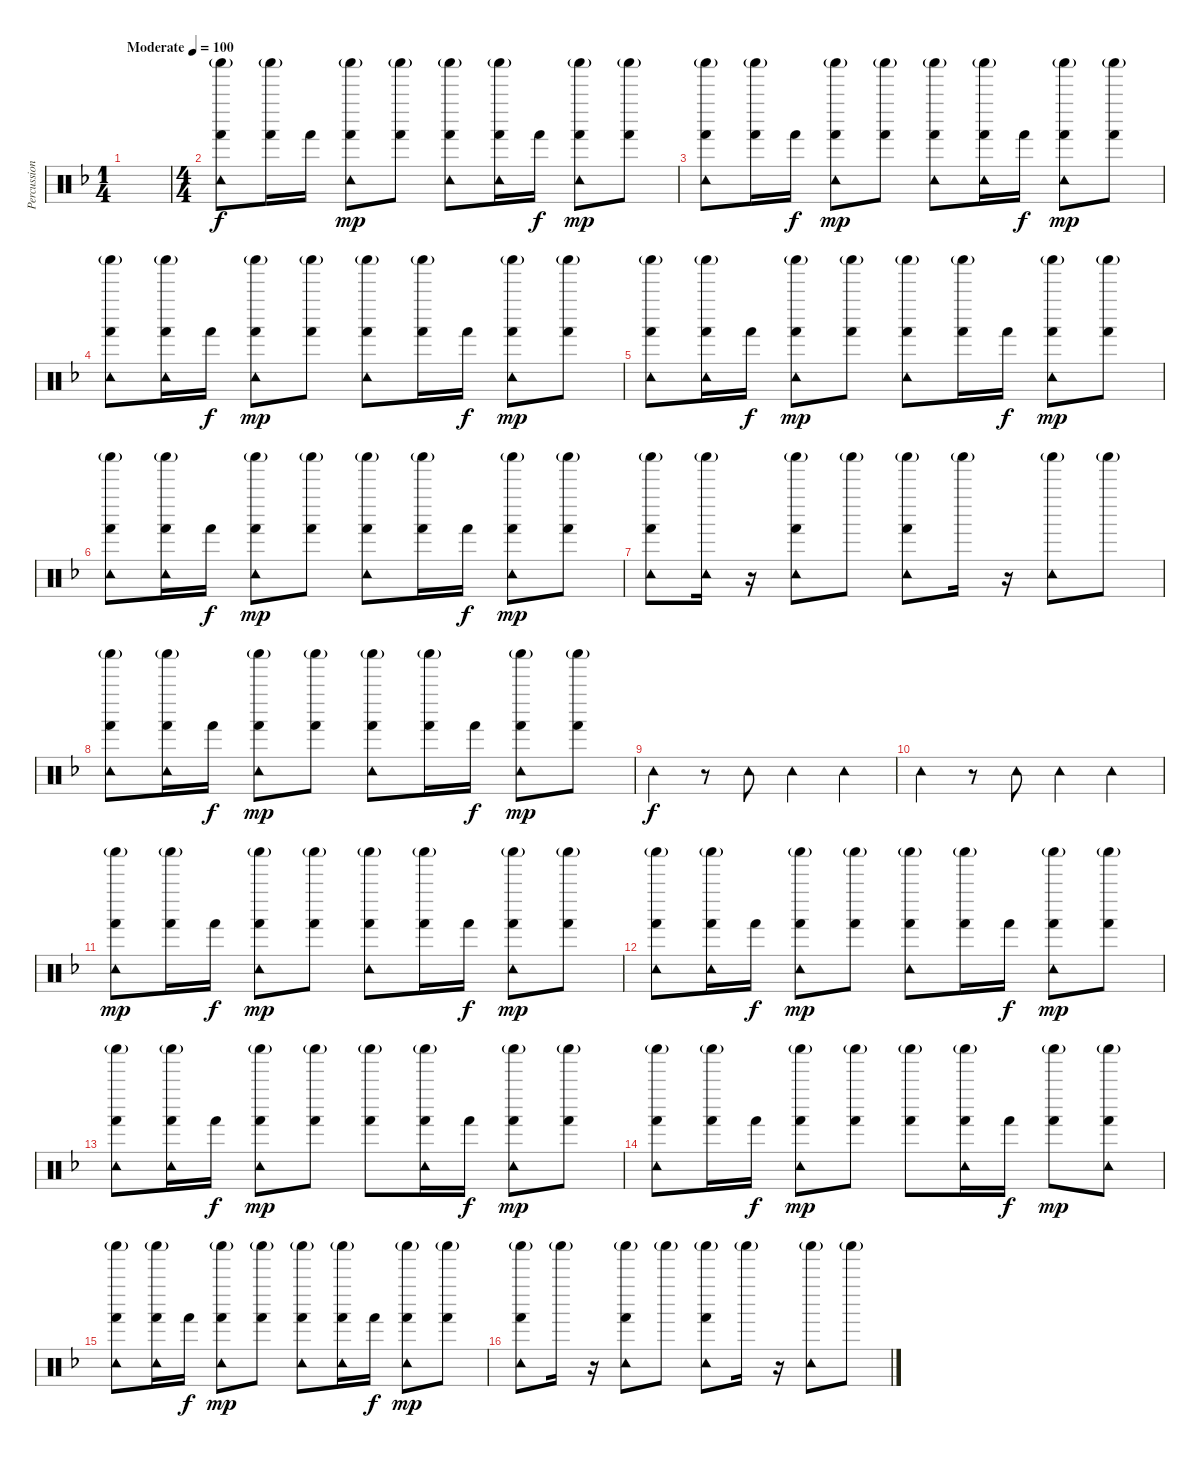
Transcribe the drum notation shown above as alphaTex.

\track ("Percussion" "Percussion") {instrument percussion}
\staff {score}
\articulation defaults
\ts (1 4)
\tempo (100 "Moderate")
\clef neutral
\ks f
|
\ts (4 4)
("Tambourine (hit)" "Shaker (hit)"{g} "Hand (hit)").8 ("Shaker (hit)"{g} "Hand (hit)").16 "Hand (hit)".16{dy f} ("Tambourine (hit)" "Shaker (hit)"{g} "Hand (hit)").8{dy mp} ("Shaker (hit)"{g} "Hand (hit)").8 ("Tambourine (hit)" "Shaker (hit)"{g} "Hand (hit)").8 ("Tambourine (hit)" "Shaker (hit)"{g} "Hand (hit)").16 "Hand (hit)".16{dy f} ("Tambourine (hit)" "Shaker (hit)"{g} "Hand (hit)").8{dy mp} ("Shaker (hit)"{g} "Hand (hit)").8 |
("Tambourine (hit)" "Shaker (hit)"{g} "Hand (hit)").8 ("Shaker (hit)"{g} "Hand (hit)").16 "Hand (hit)".16{dy f} ("Tambourine (hit)" "Shaker (hit)"{g} "Hand (hit)").8{dy mp} ("Shaker (hit)"{g} "Hand (hit)").8 ("Tambourine (hit)" "Shaker (hit)"{g} "Hand (hit)").8 ("Tambourine (hit)" "Shaker (hit)"{g} "Hand (hit)").16 "Hand (hit)".16{dy f} ("Tambourine (hit)" "Shaker (hit)"{g} "Hand (hit)").8{dy mp} ("Shaker (hit)"{g} "Hand (hit)").8 |
("Tambourine (hit)" "Shaker (hit)"{g} "Hand (hit)").8 ("Tambourine (hit)" "Shaker (hit)"{g} "Hand (hit)").16 "Hand (hit)".16{dy f} ("Tambourine (hit)" "Shaker (hit)"{g} "Hand (hit)").8{dy mp} ("Shaker (hit)"{g} "Hand (hit)").8 ("Tambourine (hit)" "Shaker (hit)"{g} "Hand (hit)").8 ("Shaker (hit)"{g} "Hand (hit)").16 "Hand (hit)".16{dy f} ("Tambourine (hit)" "Shaker (hit)"{g} "Hand (hit)").8{dy mp} ("Shaker (hit)"{g} "Hand (hit)").8 |
("Tambourine (hit)" "Shaker (hit)"{g} "Hand (hit)").8 ("Tambourine (hit)" "Shaker (hit)"{g} "Hand (hit)").16 "Hand (hit)".16{dy f} ("Tambourine (hit)" "Shaker (hit)"{g} "Hand (hit)").8{dy mp} ("Shaker (hit)"{g} "Hand (hit)").8 ("Tambourine (hit)" "Shaker (hit)"{g} "Hand (hit)").8 ("Shaker (hit)"{g} "Hand (hit)").16 "Hand (hit)".16{dy f} ("Tambourine (hit)" "Shaker (hit)"{g} "Hand (hit)").8{dy mp} ("Shaker (hit)"{g} "Hand (hit)").8 |
("Tambourine (hit)" "Shaker (hit)"{g} "Hand (hit)").8 ("Tambourine (hit)" "Shaker (hit)"{g} "Hand (hit)").16 "Hand (hit)".16{dy f} ("Tambourine (hit)" "Shaker (hit)"{g} "Hand (hit)").8{dy mp} ("Shaker (hit)"{g} "Hand (hit)").8 ("Tambourine (hit)" "Shaker (hit)"{g} "Hand (hit)").8 ("Shaker (hit)"{g} "Hand (hit)").16 "Hand (hit)".16{dy f} ("Tambourine (hit)" "Shaker (hit)"{g} "Hand (hit)").8{dy mp} ("Shaker (hit)"{g} "Hand (hit)").8 |
("Tambourine (hit)" "Shaker (hit)"{g} "Hand (hit)").8 ("Tambourine (hit)" "Shaker (hit)"{g}).16 r.16 ("Tambourine (hit)" "Shaker (hit)"{g} "Hand (hit)").8 "Shaker (hit)"{g}.8 ("Tambourine (hit)" "Shaker (hit)"{g} "Hand (hit)").8 "Shaker (hit)"{g}.16 r.16 ("Tambourine (hit)" "Shaker (hit)"{g}).8 "Shaker (hit)"{g}.8 |
("Tambourine (hit)" "Shaker (hit)"{g} "Hand (hit)").8 ("Tambourine (hit)" "Shaker (hit)"{g} "Hand (hit)").16 "Hand (hit)".16{dy f} ("Tambourine (hit)" "Shaker (hit)"{g} "Hand (hit)").8{dy mp} ("Shaker (hit)"{g} "Hand (hit)").8 ("Tambourine (hit)" "Shaker (hit)"{g} "Hand (hit)").8 ("Shaker (hit)"{g} "Hand (hit)").16 "Hand (hit)".16{dy f} ("Tambourine (hit)" "Shaker (hit)"{g} "Hand (hit)").8{dy mp} ("Shaker (hit)"{g} "Hand (hit)").8 |
"Tambourine (hit)".4{dy f} r.8 "Tambourine (hit)".8 "Tambourine (hit)".4 "Tambourine (hit)".4 |
"Tambourine (hit)".4 r.8 "Tambourine (hit)".8 "Tambourine (hit)".4 "Tambourine (hit)".4 |
("Tambourine (hit)" "Shaker (hit)"{g} "Hand (hit)").8{dy mp} ("Shaker (hit)"{g} "Hand (hit)").16 "Hand (hit)".16{dy f} ("Tambourine (hit)" "Shaker (hit)"{g} "Hand (hit)").8{dy mp} ("Shaker (hit)"{g} "Hand (hit)").8 ("Tambourine (hit)" "Shaker (hit)"{g} "Hand (hit)").8 ("Shaker (hit)"{g} "Hand (hit)").16 "Hand (hit)".16{dy f} ("Tambourine (hit)" "Shaker (hit)"{g} "Hand (hit)").8{dy mp} ("Shaker (hit)"{g} "Hand (hit)").8 |
("Tambourine (hit)" "Shaker (hit)"{g} "Hand (hit)").8 ("Tambourine (hit)" "Shaker (hit)"{g} "Hand (hit)").16 "Hand (hit)".16{dy f} ("Tambourine (hit)" "Shaker (hit)"{g} "Hand (hit)").8{dy mp} ("Shaker (hit)"{g} "Hand (hit)").8 ("Tambourine (hit)" "Shaker (hit)"{g} "Hand (hit)").8 ("Shaker (hit)"{g} "Hand (hit)").16 "Hand (hit)".16{dy f} ("Tambourine (hit)" "Shaker (hit)"{g} "Hand (hit)").8{dy mp} ("Shaker (hit)"{g} "Hand (hit)").8 |
("Tambourine (hit)" "Shaker (hit)"{g} "Hand (hit)").8 ("Tambourine (hit)" "Shaker (hit)"{g} "Hand (hit)").16 "Hand (hit)".16{dy f} ("Tambourine (hit)" "Shaker (hit)"{g} "Hand (hit)").8{dy mp} ("Shaker (hit)"{g} "Hand (hit)").8 ("Shaker (hit)"{g} "Hand (hit)").8 ("Tambourine (hit)" "Shaker (hit)"{g} "Hand (hit)").16 "Hand (hit)".16{dy f} ("Tambourine (hit)" "Shaker (hit)"{g} "Hand (hit)").8{dy mp} ("Shaker (hit)"{g} "Hand (hit)").8 |
("Tambourine (hit)" "Shaker (hit)"{g} "Hand (hit)").8 ("Shaker (hit)"{g} "Hand (hit)").16 "Hand (hit)".16{dy f} ("Tambourine (hit)" "Shaker (hit)"{g} "Hand (hit)").8{dy mp} ("Shaker (hit)"{g} "Hand (hit)").8 ("Shaker (hit)"{g} "Hand (hit)").8 ("Tambourine (hit)" "Shaker (hit)"{g} "Hand (hit)").16 "Hand (hit)".16{dy f} ("Shaker (hit)"{g} "Hand (hit)").8{dy mp} ("Tambourine (hit)" "Shaker (hit)"{g} "Hand (hit)").8 |
("Tambourine (hit)" "Shaker (hit)"{g} "Hand (hit)").8 ("Tambourine (hit)" "Shaker (hit)"{g} "Hand (hit)").16 "Hand (hit)".16{dy f} ("Tambourine (hit)" "Shaker (hit)"{g} "Hand (hit)").8{dy mp} ("Shaker (hit)"{g} "Hand (hit)").8 ("Tambourine (hit)" "Shaker (hit)"{g} "Hand (hit)").8 ("Tambourine (hit)" "Shaker (hit)"{g} "Hand (hit)").16 "Hand (hit)".16{dy f} ("Tambourine (hit)" "Shaker (hit)"{g} "Hand (hit)").8{dy mp} ("Shaker (hit)"{g} "Hand (hit)").8 |
("Tambourine (hit)" "Shaker (hit)"{g} "Hand (hit)").8 "Shaker (hit)"{g}.16 r.16 ("Tambourine (hit)" "Shaker (hit)"{g} "Hand (hit)").8 "Shaker (hit)"{g}.8 ("Tambourine (hit)" "Shaker (hit)"{g} "Hand (hit)").8 "Shaker (hit)"{g}.16 r.16 ("Tambourine (hit)" "Shaker (hit)"{g}).8 "Shaker (hit)"{g}.8
